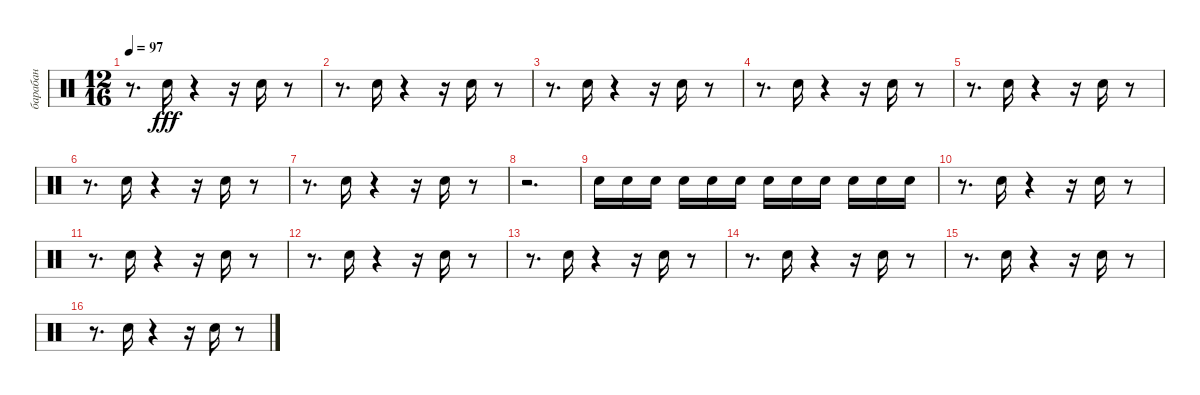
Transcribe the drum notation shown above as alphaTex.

\track ("барабан" "барабан") {instrument percussion}
\staff {score}
\articulation defaults
\ts (12 16)
\tempo 97
\clef neutral
\ks c
r.8{d dy fff} "Snare (hit) 2".16 r.4 r.16 "Snare (hit) 2".16 r.8 |
r.8{d} "Snare (hit) 2".16 r.4 r.16 "Snare (hit) 2".16 r.8 |
r.8{d} "Snare (hit) 2".16 r.4 r.16 "Snare (hit) 2".16 r.8 |
r.8{d} "Snare (hit) 2".16 r.4 r.16 "Snare (hit) 2".16 r.8 |
r.8{d} "Snare (hit) 2".16 r.4 r.16 "Snare (hit) 2".16 r.8 |
r.8{d} "Snare (hit) 2".16 r.4 r.16 "Snare (hit) 2".16 r.8 |
r.8{d} "Snare (hit) 2".16 r.4 r.16 "Snare (hit) 2".16 r.8 |
r.2{d} |
"Snare (hit) 2".16 "Snare (hit) 2".16 "Snare (hit) 2".16 "Snare (hit) 2".16 "Snare (hit) 2".16 "Snare (hit) 2".16 "Snare (hit) 2".16 "Snare (hit) 2".16 "Snare (hit) 2".16 "Snare (hit) 2".16 "Snare (hit) 2".16 "Snare (hit) 2".16 |
r.8{d} "Snare (hit) 2".16 r.4 r.16 "Snare (hit) 2".16 r.8 |
r.8{d} "Snare (hit) 2".16 r.4 r.16 "Snare (hit) 2".16 r.8 |
r.8{d} "Snare (hit) 2".16 r.4 r.16 "Snare (hit) 2".16 r.8 |
r.8{d} "Snare (hit) 2".16 r.4 r.16 "Snare (hit) 2".16 r.8 |
r.8{d} "Snare (hit) 2".16 r.4 r.16 "Snare (hit) 2".16 r.8 |
r.8{d} "Snare (hit) 2".16 r.4 r.16 "Snare (hit) 2".16 r.8 |
r.8{d} "Snare (hit) 2".16 r.4 r.16 "Snare (hit) 2".16 r.8
